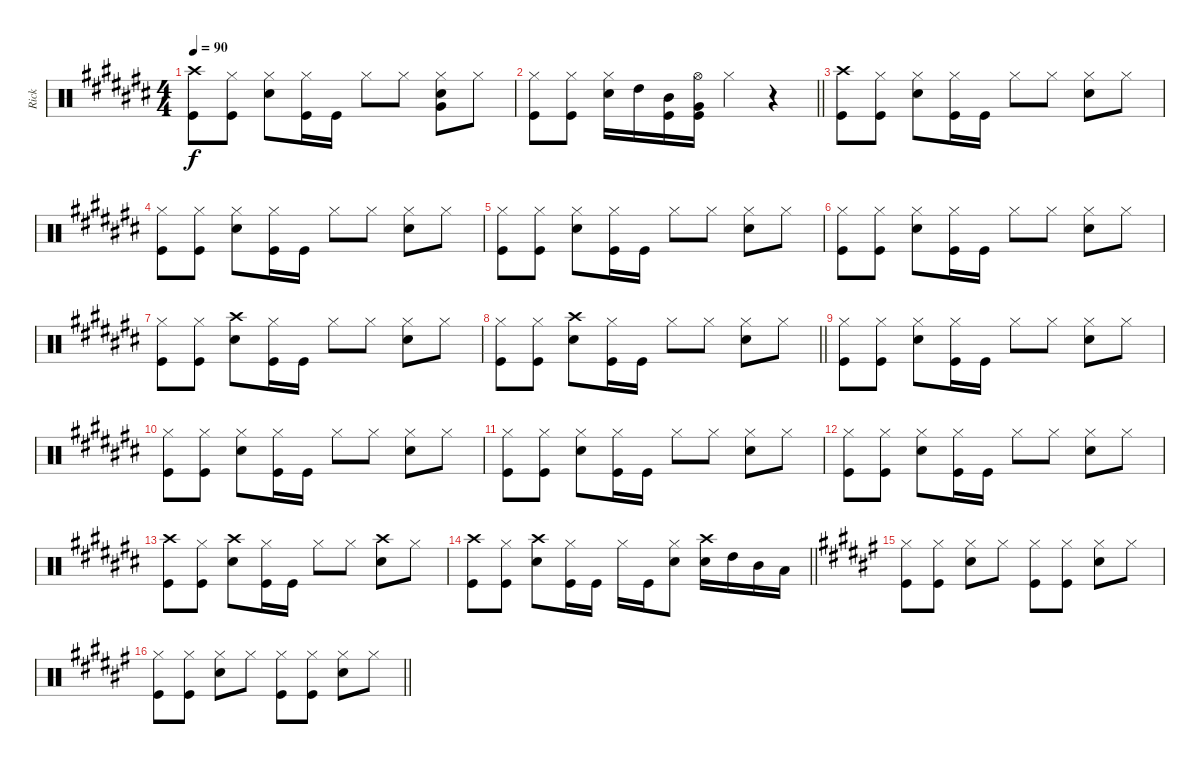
\track ("Rick" "Rick") {instrument percussion}
\staff {score}
\articulation defaults
\ts (4 4)
\tempo 90
\clef neutral
\ks c#
("Crash high (hit)" "Kick (hit)").8{dy f} ("Hi-Hat (closed)" "Kick (hit)").8 ("Hi-Hat (closed)" "Snare (hit) 2").8 ("Hi-Hat (closed)" "Kick (hit)").16 "Kick (hit)".16 "Hi-Hat (closed)".8 "Hi-Hat (closed)".8 ("Hi-Hat (closed)" "Snare (hit) 2" "Very Low Tom (hit)").8 "Hi-Hat (closed)".8 |
\barLineRight lightlight
("Hi-Hat (closed)" "Kick (hit)").8 ("Hi-Hat (closed)" "Kick (hit)").8 ("Hi-Hat (closed)" "Snare (hit) 2").16 "High Tom (hit)".16 ("Mid Tom (hit)" "Kick (hit)").16 ("Hi-Hat (open)" "Very Low Tom (hit)" "Kick (hit)").16 "Hi-Hat (closed)".4 r.4 |
("Crash high (hit)" "Kick (hit)").8 ("Hi-Hat (closed)" "Kick (hit)").8 ("Hi-Hat (closed)" "Snare (hit) 2").8 ("Hi-Hat (closed)" "Kick (hit)").16 "Kick (hit)".16 "Hi-Hat (closed)".8 "Hi-Hat (closed)".8 ("Hi-Hat (closed)" "Snare (hit) 2").8 "Hi-Hat (closed)".8 |
("Hi-Hat (closed)" "Kick (hit)").8 ("Hi-Hat (closed)" "Kick (hit)").8 ("Hi-Hat (closed)" "Snare (hit) 2").8 ("Hi-Hat (closed)" "Kick (hit)").16 "Kick (hit)".16 "Hi-Hat (closed)".8 "Hi-Hat (closed)".8 ("Hi-Hat (closed)" "Snare (hit) 2").8 "Hi-Hat (closed)".8 |
("Hi-Hat (closed)" "Kick (hit)").8 ("Hi-Hat (closed)" "Kick (hit)").8 ("Hi-Hat (closed)" "Snare (hit) 2").8 ("Hi-Hat (closed)" "Kick (hit)").16 "Kick (hit)".16 "Hi-Hat (closed)".8 "Hi-Hat (closed)".8 ("Hi-Hat (closed)" "Snare (hit) 2").8 "Hi-Hat (closed)".8 |
("Hi-Hat (closed)" "Kick (hit)").8 ("Hi-Hat (closed)" "Kick (hit)").8 ("Hi-Hat (closed)" "Snare (hit) 2").8 ("Hi-Hat (closed)" "Kick (hit)").16 "Kick (hit)".16 "Hi-Hat (closed)".8 "Hi-Hat (closed)".8 ("Hi-Hat (closed)" "Snare (hit) 2").8 "Hi-Hat (closed)".8 |
("Hi-Hat (closed)" "Kick (hit)").8 ("Hi-Hat (closed)" "Kick (hit)").8 ("Crash high (hit)" "Snare (hit) 2").8 ("Hi-Hat (closed)" "Kick (hit)").16 "Kick (hit)".16 "Hi-Hat (closed)".8 "Hi-Hat (closed)".8 ("Hi-Hat (closed)" "Snare (hit) 2").8 "Hi-Hat (closed)".8 |
\barLineRight lightlight
("Hi-Hat (closed)" "Kick (hit)").8 ("Hi-Hat (closed)" "Kick (hit)").8 ("Crash high (hit)" "Snare (hit) 2").8 ("Hi-Hat (closed)" "Kick (hit)").16 "Kick (hit)".16 "Hi-Hat (closed)".8 "Hi-Hat (closed)".8 ("Hi-Hat (closed)" "Snare (hit) 2").8 "Hi-Hat (closed)".8 |
("Hi-Hat (closed)" "Kick (hit)").8 ("Hi-Hat (closed)" "Kick (hit)").8 ("Hi-Hat (closed)" "Snare (hit) 2").8 ("Hi-Hat (closed)" "Kick (hit)").16 "Kick (hit)".16 "Hi-Hat (closed)".8 "Hi-Hat (closed)".8 ("Hi-Hat (closed)" "Snare (hit) 2").8 "Hi-Hat (closed)".8 |
("Hi-Hat (closed)" "Kick (hit)").8 ("Hi-Hat (closed)" "Kick (hit)").8 ("Hi-Hat (closed)" "Snare (hit) 2").8 ("Hi-Hat (closed)" "Kick (hit)").16 "Kick (hit)".16 "Hi-Hat (closed)".8 "Hi-Hat (closed)".8 ("Hi-Hat (closed)" "Snare (hit) 2").8 "Hi-Hat (closed)".8 |
("Hi-Hat (closed)" "Kick (hit)").8 ("Hi-Hat (closed)" "Kick (hit)").8 ("Hi-Hat (closed)" "Snare (hit) 2").8 ("Hi-Hat (closed)" "Kick (hit)").16 "Kick (hit)".16 "Hi-Hat (closed)".8 "Hi-Hat (closed)".8 ("Hi-Hat (closed)" "Snare (hit) 2").8 "Hi-Hat (closed)".8 |
("Hi-Hat (closed)" "Kick (hit)").8 ("Hi-Hat (closed)" "Kick (hit)").8 ("Hi-Hat (closed)" "Snare (hit) 2").8 ("Hi-Hat (closed)" "Kick (hit)").16 "Kick (hit)".16 "Hi-Hat (closed)".8 "Hi-Hat (closed)".8 ("Hi-Hat (closed)" "Snare (hit) 2").8 "Hi-Hat (closed)".8 |
("Crash high (hit)" "Kick (hit)").8 ("Hi-Hat (closed)" "Kick (hit)").8 ("Crash high (hit)" "Snare (hit) 2").8 ("Hi-Hat (closed)" "Kick (hit)").16 "Kick (hit)".16 "Hi-Hat (closed)".8 "Hi-Hat (closed)".8 ("Crash high (hit)" "Snare (hit) 2").8 "Hi-Hat (closed)".8 |
\barLineRight lightlight
("Crash high (hit)" "Kick (hit)").8 ("Hi-Hat (closed)" "Kick (hit)").8 ("Crash high (hit)" "Snare (hit) 2").8 ("Hi-Hat (closed)" "Kick (hit)").16 "Kick (hit)".16 "Hi-Hat (closed)".16 "Kick (hit)".16 ("Hi-Hat (closed)" "Snare (hit) 2").8 ("Crash high (hit)" "Snare (hit) 2").16 "High Tom (hit)".16 "Mid Tom (hit)".16 "Low Tom (hit)".16 |
\ks f#
("Hi-Hat (closed)" "Kick (hit)").8 ("Hi-Hat (closed)" "Kick (hit)").8 ("Hi-Hat (closed)" "Snare (hit) 2").8 "Hi-Hat (closed)".8 ("Hi-Hat (closed)" "Kick (hit)").8 ("Hi-Hat (closed)" "Kick (hit)").8 ("Hi-Hat (closed)" "Snare (hit) 2").8 "Hi-Hat (closed)".8 |
\barLineRight lightlight
("Hi-Hat (closed)" "Kick (hit)").8 ("Hi-Hat (closed)" "Kick (hit)").8 ("Hi-Hat (closed)" "Snare (hit) 2").8 "Hi-Hat (closed)".8 ("Hi-Hat (closed)" "Kick (hit)").8 ("Hi-Hat (closed)" "Kick (hit)").8 ("Hi-Hat (closed)" "Snare (hit) 2").8 "Hi-Hat (closed)".8
